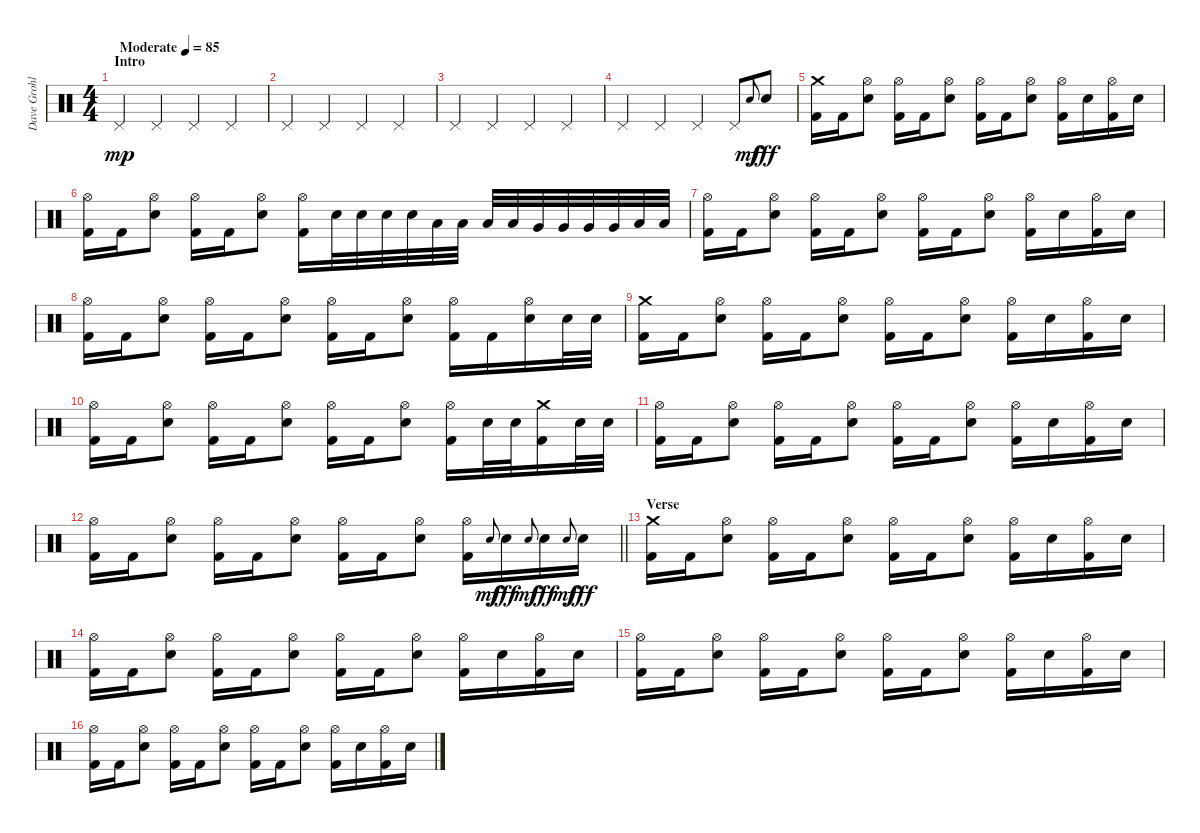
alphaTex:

\track ("Dave Grohl ( Drums )" "Dave Grohl") {instrument percussion}
\staff {score}
\articulation defaults
\ts (4 4)
\section ("" "Intro")
\tempo (85 "Moderate")
\clef neutral
\ks c "Pedal Hi-Hat (hit)".4{dy mp} "Pedal Hi-Hat (hit)".4 "Pedal Hi-Hat (hit)".4 "Pedal Hi-Hat (hit)".4
|
"Pedal Hi-Hat (hit)".4 "Pedal Hi-Hat (hit)".4 "Pedal Hi-Hat (hit)".4 "Pedal Hi-Hat (hit)".4 |
"Pedal Hi-Hat (hit)".4 "Pedal Hi-Hat (hit)".4 "Pedal Hi-Hat (hit)".4 "Pedal Hi-Hat (hit)".4 |
"Pedal Hi-Hat (hit)".4 "Pedal Hi-Hat (hit)".4 "Pedal Hi-Hat (hit)".4 "Pedal Hi-Hat (hit)".8 "Electric Snare (hit)".8{gr onbeat dy mf} "Electric Snare (hit)".8{dy fff} |
("Crash medium (hit)" "Kick (hit) 2").16 "Kick (hit) 2".16 ("Hi-Hat (open)" "Electric Snare (hit)").8 ("Hi-Hat (open)" "Kick (hit) 2").16 "Kick (hit) 2".16 ("Hi-Hat (open)" "Electric Snare (hit)").8 ("Hi-Hat (open)" "Kick (hit) 2").16 "Kick (hit) 2".16 ("Hi-Hat (open)" "Electric Snare (hit)").8 ("Hi-Hat (open)" "Kick (hit) 2").16 "Electric Snare (hit)".16 ("Hi-Hat (open)" "Kick (hit) 2").16 "Electric Snare (hit)".16 |
("Hi-Hat (open)" "Kick (hit) 2").16 "Kick (hit) 2".16 ("Hi-Hat (open)" "Electric Snare (hit)").8 ("Hi-Hat (open)" "Kick (hit) 2").16 "Kick (hit) 2".16 ("Hi-Hat (open)" "Electric Snare (hit)").8 ("Hi-Hat (open)" "Kick (hit) 2").16 "Electric Snare (hit)".32 "Electric Snare (hit)".32 "Electric Snare (hit)".32 "Electric Snare (hit)".32 "Low Tom (hit)".32 "Low Tom (hit)".32 "Low Tom (hit)".32 "Low Tom (hit)".32 "Very Low Tom (hit)".32 "Very Low Tom (hit)".32 "Very Low Tom (hit)".32 "Very Low Tom (hit)".32 "Low Floor Tom (hit)".32 "Low Floor Tom (hit)".32 |
("Hi-Hat (open)" "Kick (hit) 2").16 "Kick (hit) 2".16 ("Hi-Hat (open)" "Electric Snare (hit)").8 ("Hi-Hat (open)" "Kick (hit) 2").16 "Kick (hit) 2".16 ("Hi-Hat (open)" "Electric Snare (hit)").8 ("Hi-Hat (open)" "Kick (hit) 2").16 "Kick (hit) 2".16 ("Hi-Hat (open)" "Electric Snare (hit)").8 ("Hi-Hat (open)" "Kick (hit) 2").16 "Electric Snare (hit)".16 ("Hi-Hat (open)" "Kick (hit) 2").16 "Electric Snare (hit)".16 |
("Hi-Hat (open)" "Kick (hit) 2").16 "Kick (hit) 2".16 ("Hi-Hat (open)" "Electric Snare (hit)").8 ("Hi-Hat (open)" "Kick (hit) 2").16 "Kick (hit) 2".16 ("Hi-Hat (open)" "Electric Snare (hit)").8 ("Hi-Hat (open)" "Kick (hit) 2").16 "Kick (hit) 2".16 ("Hi-Hat (open)" "Electric Snare (hit)").8 ("Hi-Hat (open)" "Kick (hit) 2").16 "Kick (hit) 2".16 ("Hi-Hat (open)" "Electric Snare (hit)").16 "Electric Snare (hit)".32 "Electric Snare (hit)".32 |
("Crash medium (hit)" "Kick (hit) 2").16 "Kick (hit) 2".16 ("Hi-Hat (open)" "Electric Snare (hit)").8 ("Hi-Hat (open)" "Kick (hit) 2").16 "Kick (hit) 2".16 ("Hi-Hat (open)" "Electric Snare (hit)").8 ("Hi-Hat (open)" "Kick (hit) 2").16 "Kick (hit) 2".16 ("Hi-Hat (open)" "Electric Snare (hit)").8 ("Hi-Hat (open)" "Kick (hit) 2").16 "Electric Snare (hit)".16 ("Hi-Hat (open)" "Kick (hit) 2").16 "Electric Snare (hit)".16 |
("Hi-Hat (open)" "Kick (hit) 2").16 "Kick (hit) 2".16 ("Hi-Hat (open)" "Electric Snare (hit)").8 ("Hi-Hat (open)" "Kick (hit) 2").16 "Kick (hit) 2".16 ("Hi-Hat (open)" "Electric Snare (hit)").8 ("Hi-Hat (open)" "Kick (hit) 2").16 "Kick (hit) 2".16 ("Hi-Hat (open)" "Electric Snare (hit)").8 ("Hi-Hat (open)" "Kick (hit) 2").16 "Electric Snare (hit)".32 "Electric Snare (hit)".32 ("Crash medium (hit)" "Kick (hit) 2").16 "Electric Snare (hit)".32 "Electric Snare (hit)".32 |
("Hi-Hat (open)" "Kick (hit) 2").16 "Kick (hit) 2".16 ("Hi-Hat (open)" "Electric Snare (hit)").8 ("Hi-Hat (open)" "Kick (hit) 2").16 "Kick (hit) 2".16 ("Hi-Hat (open)" "Electric Snare (hit)").8 ("Hi-Hat (open)" "Kick (hit) 2").16 "Kick (hit) 2".16 ("Hi-Hat (open)" "Electric Snare (hit)").8 ("Hi-Hat (open)" "Kick (hit) 2").16 "Electric Snare (hit)".16 ("Hi-Hat (open)" "Kick (hit) 2").16 "Electric Snare (hit)".16 |
\barLineRight lightlight
("Hi-Hat (open)" "Kick (hit) 2").16 "Kick (hit) 2".16 ("Hi-Hat (open)" "Electric Snare (hit)").8 ("Hi-Hat (open)" "Kick (hit) 2").16 "Kick (hit) 2".16 ("Hi-Hat (open)" "Electric Snare (hit)").8 ("Hi-Hat (open)" "Kick (hit) 2").16 "Kick (hit) 2".16 ("Hi-Hat (open)" "Electric Snare (hit)").8 ("Hi-Hat (open)" "Kick (hit) 2").16 "Electric Snare (hit)".8{gr onbeat dy mf} "Electric Snare (hit)".16{dy fff} "Electric Snare (hit)".8{gr onbeat dy mf} "Electric Snare (hit)".16{dy fff} "Electric Snare (hit)".8{gr onbeat dy mf} "Electric Snare (hit)".16{dy fff} |
\section ("" "Verse")
("Crash medium (hit)" "Kick (hit) 2").16 "Kick (hit) 2".16 ("Hi-Hat (open)" "Electric Snare (hit)").8 ("Hi-Hat (open)" "Kick (hit) 2").16 "Kick (hit) 2".16 ("Hi-Hat (open)" "Electric Snare (hit)").8 ("Hi-Hat (open)" "Kick (hit) 2").16 "Kick (hit) 2".16 ("Hi-Hat (open)" "Electric Snare (hit)").8 ("Hi-Hat (open)" "Kick (hit) 2").16 "Electric Snare (hit)".16 ("Hi-Hat (open)" "Kick (hit) 2").16 "Electric Snare (hit)".16 |
("Hi-Hat (open)" "Kick (hit) 2").16 "Kick (hit) 2".16 ("Hi-Hat (open)" "Electric Snare (hit)").8 ("Hi-Hat (open)" "Kick (hit) 2").16 "Kick (hit) 2".16 ("Hi-Hat (open)" "Electric Snare (hit)").8 ("Hi-Hat (open)" "Kick (hit) 2").16 "Kick (hit) 2".16 ("Hi-Hat (open)" "Electric Snare (hit)").8 ("Hi-Hat (open)" "Kick (hit) 2").16 "Electric Snare (hit)".16 ("Hi-Hat (open)" "Kick (hit) 2").16 "Electric Snare (hit)".16 |
("Hi-Hat (open)" "Kick (hit) 2").16 "Kick (hit) 2".16 ("Hi-Hat (open)" "Electric Snare (hit)").8 ("Hi-Hat (open)" "Kick (hit) 2").16 "Kick (hit) 2".16 ("Hi-Hat (open)" "Electric Snare (hit)").8 ("Hi-Hat (open)" "Kick (hit) 2").16 "Kick (hit) 2".16 ("Hi-Hat (open)" "Electric Snare (hit)").8 ("Hi-Hat (open)" "Kick (hit) 2").16 "Electric Snare (hit)".16 ("Hi-Hat (open)" "Kick (hit) 2").16 "Electric Snare (hit)".16 |
("Hi-Hat (open)" "Kick (hit) 2").16 "Kick (hit) 2".16 ("Hi-Hat (open)" "Electric Snare (hit)").8 ("Hi-Hat (open)" "Kick (hit) 2").16 "Kick (hit) 2".16 ("Hi-Hat (open)" "Electric Snare (hit)").8 ("Hi-Hat (open)" "Kick (hit) 2").16 "Kick (hit) 2".16 ("Hi-Hat (open)" "Electric Snare (hit)").8 ("Hi-Hat (open)" "Kick (hit) 2").16 "Electric Snare (hit)".16 ("Hi-Hat (open)" "Kick (hit) 2").16 "Electric Snare (hit)".16
